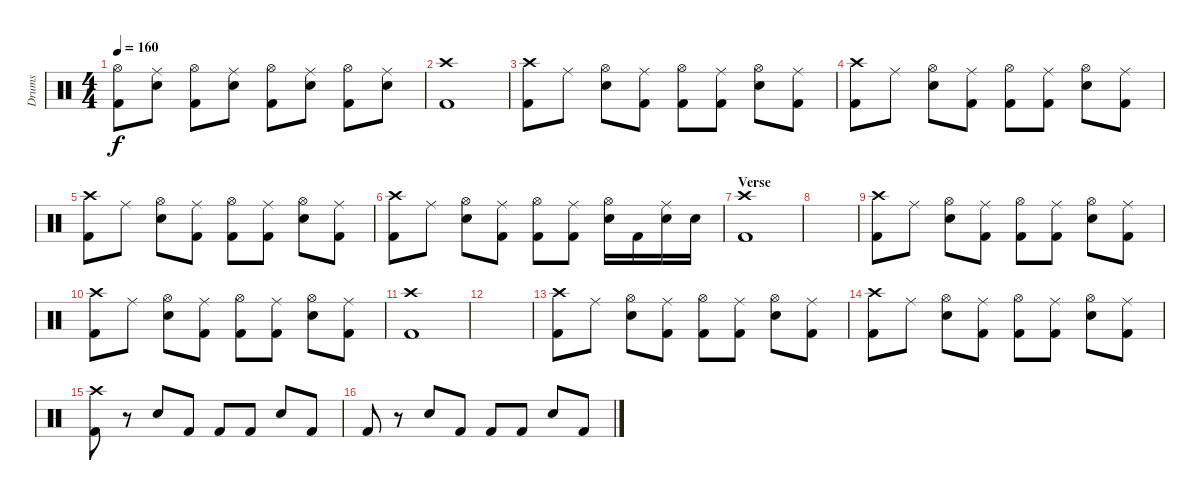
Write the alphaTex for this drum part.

\track ("Drums" "Drums") {instrument percussion}
\staff {score}
\articulation defaults
\ts (4 4)
\tempo 160
\clef neutral
\ks c
("Kick (hit) 2" "Hi-Hat (open)").8{dy f} ("Electric Snare (hit)" "Ride (middle)").8 ("Kick (hit) 2" "Hi-Hat (open)").8 ("Electric Snare (hit)" "Ride (middle)").8 ("Kick (hit) 2" "Hi-Hat (open)").8 ("Electric Snare (hit)" "Ride (middle)").8 ("Kick (hit) 2" "Hi-Hat (open)").8 ("Electric Snare (hit)" "Ride (middle)").8 |
("Kick (hit) 2" "Crash high (hit)").1 |
("Kick (hit) 2" "Crash high (hit)").8 "Ride (middle)".8 ("Electric Snare (hit)" "Hi-Hat (open)").8 ("Kick (hit) 2" "Ride (middle)").8 ("Kick (hit) 2" "Hi-Hat (open)").8 ("Kick (hit) 2" "Ride (middle)").8 ("Electric Snare (hit)" "Hi-Hat (open)").8 ("Kick (hit) 2" "Ride (middle)").8 |
("Kick (hit) 2" "Crash high (hit)").8 "Ride (middle)".8 ("Electric Snare (hit)" "Hi-Hat (open)").8 ("Kick (hit) 2" "Ride (middle)").8 ("Kick (hit) 2" "Hi-Hat (open)").8 ("Kick (hit) 2" "Ride (middle)").8 ("Electric Snare (hit)" "Hi-Hat (open)").8 ("Kick (hit) 2" "Ride (middle)").8 |
("Kick (hit) 2" "Crash high (hit)").8 "Ride (middle)".8 ("Electric Snare (hit)" "Hi-Hat (open)").8 ("Kick (hit) 2" "Ride (middle)").8 ("Kick (hit) 2" "Hi-Hat (open)").8 ("Kick (hit) 2" "Ride (middle)").8 ("Electric Snare (hit)" "Hi-Hat (open)").8 ("Kick (hit) 2" "Ride (middle)").8 |
("Kick (hit) 2" "Crash high (hit)").8 "Ride (middle)".8 ("Electric Snare (hit)" "Hi-Hat (open)").8 ("Kick (hit) 2" "Ride (middle)").8 ("Kick (hit) 2" "Hi-Hat (open)").8 ("Kick (hit) 2" "Ride (middle)").8 ("Electric Snare (hit)" "Hi-Hat (open)").16 "Kick (hit) 2".16 ("Electric Snare (hit)" "Ride (middle)").16 "Snare (hit) 2".16 |
\section ("" "Verse")
("Kick (hit) 2" "Crash high (hit)").1 |
|
("Kick (hit) 2" "Crash high (hit)").8 "Ride (middle)".8 ("Electric Snare (hit)" "Hi-Hat (open)").8 ("Kick (hit) 2" "Ride (middle)").8 ("Kick (hit) 2" "Hi-Hat (open)").8 ("Kick (hit) 2" "Ride (middle)").8 ("Electric Snare (hit)" "Hi-Hat (open)").8 ("Kick (hit) 2" "Ride (middle)").8 |
("Kick (hit) 2" "Crash high (hit)").8 "Ride (middle)".8 ("Electric Snare (hit)" "Hi-Hat (open)").8 ("Kick (hit) 2" "Ride (middle)").8 ("Kick (hit) 2" "Hi-Hat (open)").8 ("Kick (hit) 2" "Ride (middle)").8 ("Electric Snare (hit)" "Hi-Hat (open)").8 ("Kick (hit) 2" "Ride (middle)").8 |
("Kick (hit) 2" "Crash high (hit)").1 |
|
("Kick (hit) 2" "Crash high (hit)").8 "Ride (middle)".8 ("Electric Snare (hit)" "Hi-Hat (open)").8 ("Kick (hit) 2" "Ride (middle)").8 ("Kick (hit) 2" "Hi-Hat (open)").8 ("Kick (hit) 2" "Ride (middle)").8 ("Electric Snare (hit)" "Hi-Hat (open)").8 ("Kick (hit) 2" "Ride (middle)").8 |
("Kick (hit) 2" "Crash high (hit)").8 "Ride (middle)".8 ("Electric Snare (hit)" "Hi-Hat (open)").8 ("Kick (hit) 2" "Ride (middle)").8 ("Kick (hit) 2" "Hi-Hat (open)").8 ("Kick (hit) 2" "Ride (middle)").8 ("Electric Snare (hit)" "Hi-Hat (open)").8 ("Kick (hit) 2" "Ride (middle)").8 |
("Kick (hit) 2" "Crash high (hit)").8 r.8 "Electric Snare (hit)".8 "Kick (hit) 2".8 "Kick (hit) 2".8 "Kick (hit) 2".8 "Electric Snare (hit)".8 "Kick (hit) 2".8 |
"Kick (hit) 2".8 r.8 "Electric Snare (hit)".8 "Kick (hit) 2".8 "Kick (hit) 2".8 "Kick (hit) 2".8 "Electric Snare (hit)".8 "Kick (hit) 2".8
